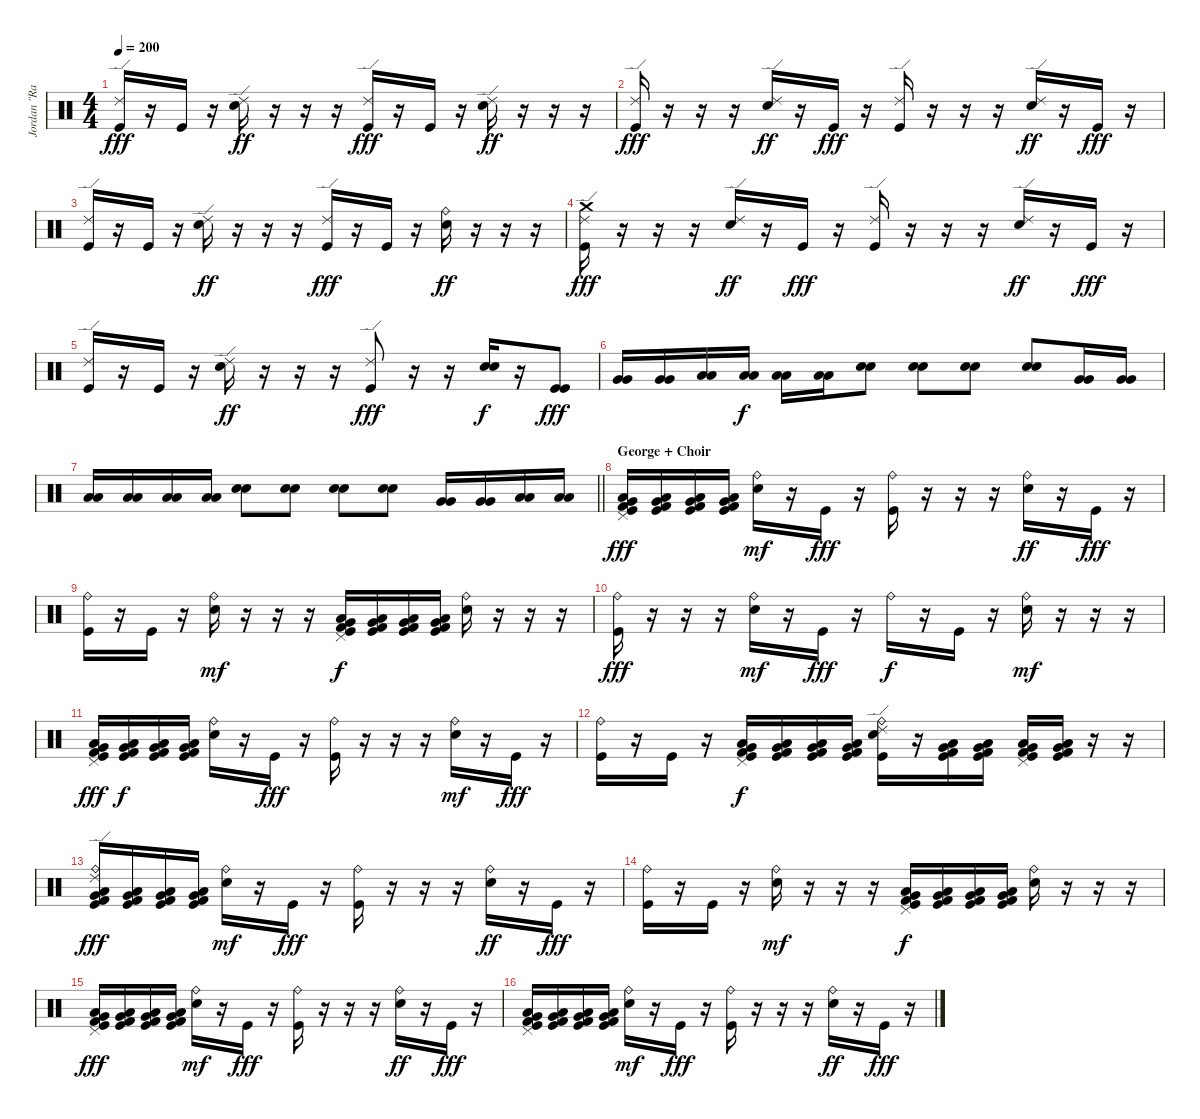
\track ("Jordan \"Ratbeard\" Hastings" "Jordan \"Ra") {instrument percussion}
\staff {score}
\articulation defaults
\ts (4 4)
\tempo 200
\clef neutral
\ks c
("Ride (edge) 2" "Kick (hit)").16{dy fff} r.16 "Kick (hit)".16 r.16 ("Ride (edge) 2" "Electric Snare (hit)").16{dy ff} r.16 r.16 r.16 ("Ride (edge) 2" "Kick (hit)").16{dy fff} r.16 "Kick (hit)".16 r.16 ("Ride (edge) 2" "Electric Snare (hit)").16{dy ff} r.16 r.16 r.16 |
("Ride (edge) 2" "Kick (hit)").16{dy fff} r.16 r.16 r.16 ("Ride (edge) 2" "Electric Snare (hit)").16{dy ff} r.16 "Kick (hit)".16{dy fff} r.16 ("Ride (edge) 2" "Kick (hit)").16 r.16 r.16 r.16 ("Ride (edge) 2" "Electric Snare (hit)").16{dy ff} r.16 "Kick (hit)".16{dy fff} r.16 |
("Ride (edge) 2" "Kick (hit)").16 r.16 "Kick (hit)".16 r.16 ("Ride (edge) 2" "Electric Snare (hit)").16{dy ff} r.16 r.16 r.16 ("Ride (edge) 2" "Kick (hit)").16{dy fff} r.16 "Kick (hit)".16 r.16 ("Ride (bell)" "Electric Snare (hit)").16{dy ff} r.16 r.16 r.16 |
("Ride (edge) 2" "Crash medium (hit)" "Kick (hit)").16{dy fff} r.16 r.16 r.16 ("Ride (edge) 2" "Electric Snare (hit)").16{dy ff} r.16 "Kick (hit)".16{dy fff} r.16 ("Ride (edge) 2" "Kick (hit)").16 r.16 r.16 r.16 ("Ride (edge) 2" "Electric Snare (hit)").16{dy ff} r.16 "Kick (hit)".16{dy fff} r.16 |
("Ride (edge) 2" "Kick (hit)").16 r.16 "Kick (hit)".16 r.16 ("Ride (edge) 2" "Electric Snare (hit)").16{dy ff} r.16 r.16 r.16 ("Ride (edge) 2" "Kick (hit)").8{dy fff} r.16 r.16 ("Electric Snare (hit)" "Electric Snare (hit)").16{dy f} r.16 ("Kick (hit)" "Kick (hit)").8{dy fff} |
("Very Low Tom (hit)" "Very Low Tom (hit)").16 ("Very Low Tom (hit)" "Very Low Tom (hit)").16 ("Low Tom (hit)" "Low Tom (hit)").16 ("Low Tom (hit)" "Low Tom (hit)").16{dy f} ("Low Floor Tom (hit)" "Low Floor Tom (hit)").16 ("Low Floor Tom (hit)" "Low Floor Tom (hit)").16 ("Electric Snare (hit)" "Electric Snare (hit)").8 ("Electric Snare (hit)" "Electric Snare (hit)").8 ("Electric Snare (hit)" "Electric Snare (hit)").8 ("Electric Snare (hit)" "Electric Snare (hit)").8 ("Very Low Tom (hit)" "Very Low Tom (hit)").16 ("Very Low Tom (hit)" "Very Low Tom (hit)").16 |
\barLineRight lightlight
("Low Tom (hit)" "Low Tom (hit)").16 ("Low Tom (hit)" "Low Tom (hit)").16 ("Low Floor Tom (hit)" "Low Floor Tom (hit)").16 ("Low Floor Tom (hit)" "Low Floor Tom (hit)").16 ("Electric Snare (hit)" "Electric Snare (hit)").8 ("Electric Snare (hit)" "Electric Snare (hit)").8 ("Electric Snare (hit)" "Electric Snare (hit)").8 ("Electric Snare (hit)" "Electric Snare (hit)").8 ("Very Low Tom (hit)" "Very Low Tom (hit)").16 ("Very Low Tom (hit)" "Very Low Tom (hit)").16 ("Low Tom (hit)" "Low Tom (hit)").16 ("Low Tom (hit)" "Low Tom (hit)").16 |
\section ("" "George + Choir")
("Pedal Hi-Hat (hit)" "Kick (hit) 2" "Low Tom (hit)" "Very Low Tom (hit)" "Kick (hit)").16{dy fff} ("Kick (hit) 2" "Low Tom (hit)" "Very Low Tom (hit)" "Kick (hit)").16 ("Kick (hit) 2" "Low Tom (hit)" "Very Low Tom (hit)" "Kick (hit)").16 ("Kick (hit) 2" "Low Tom (hit)" "Very Low Tom (hit)" "Kick (hit)").16 ("Ride (bell)" "Electric Snare (hit)").16{dy mf} r.16 "Kick (hit)".16{dy fff} r.16 ("Ride (bell)" "Kick (hit)").16 r.16 r.16 r.16 ("Ride (bell)" "Electric Snare (hit)").16{dy ff} r.16 "Kick (hit)".16{dy fff} r.16 |
("Ride (bell)" "Kick (hit)").16 r.16 "Kick (hit)".16 r.16 ("Ride (bell)" "Electric Snare (hit)").16{dy mf} r.16 r.16 r.16 ("Pedal Hi-Hat (hit)" "Kick (hit) 2" "Low Tom (hit)" "Very Low Tom (hit)" "Kick (hit)").16{dy f} ("Kick (hit) 2" "Low Tom (hit)" "Very Low Tom (hit)" "Kick (hit)").16 ("Kick (hit) 2" "Low Tom (hit)" "Very Low Tom (hit)" "Kick (hit)").16 ("Kick (hit) 2" "Low Tom (hit)" "Very Low Tom (hit)" "Kick (hit)").16 ("Ride (bell)" "Electric Snare (hit)").16 r.16 r.16 r.16 |
("Ride (bell)" "Kick (hit)").16{dy fff} r.16 r.16 r.16 ("Ride (bell)" "Electric Snare (hit)").16{dy mf} r.16 "Kick (hit)".16{dy fff} r.16 "Ride (bell)".16{dy f} r.16 "Kick (hit)".16 r.16 ("Ride (bell)" "Electric Snare (hit)").16{dy mf} r.16 r.16 r.16 |
("Pedal Hi-Hat (hit)" "Kick (hit) 2" "Low Tom (hit)" "Very Low Tom (hit)" "Kick (hit)").16{dy fff} ("Kick (hit) 2" "Low Tom (hit)" "Very Low Tom (hit)" "Kick (hit)").16{dy f} ("Kick (hit) 2" "Low Tom (hit)" "Very Low Tom (hit)" "Kick (hit)").16 ("Kick (hit) 2" "Low Tom (hit)" "Very Low Tom (hit)" "Kick (hit)").16 ("Ride (bell)" "Electric Snare (hit)").16 r.16 "Kick (hit)".16{dy fff} r.16 ("Ride (bell)" "Kick (hit)").16 r.16 r.16 r.16 ("Ride (bell)" "Electric Snare (hit)").16{dy mf} r.16 "Kick (hit)".16{dy fff} r.16 |
("Ride (bell)" "Kick (hit)").16 r.16 "Kick (hit)".16 r.16 ("Pedal Hi-Hat (hit)" "Kick (hit) 2" "Low Tom (hit)" "Very Low Tom (hit)" "Kick (hit)").16{dy f} ("Kick (hit) 2" "Low Tom (hit)" "Very Low Tom (hit)" "Kick (hit)").16 ("Kick (hit) 2" "Low Tom (hit)" "Very Low Tom (hit)" "Kick (hit)").16 ("Kick (hit) 2" "Low Tom (hit)" "Very Low Tom (hit)" "Kick (hit)").16 ("Ride (edge) 2" "Ride (bell)" "Electric Snare (hit)" "Kick (hit)").16 r.16 ("Kick (hit) 2" "Low Tom (hit)" "Very Low Tom (hit)" "Kick (hit)").16 ("Kick (hit) 2" "Low Tom (hit)" "Very Low Tom (hit)" "Kick (hit)").16 ("Pedal Hi-Hat (hit)" "Kick (hit) 2" "Low Tom (hit)" "Very Low Tom (hit)" "Kick (hit)").16 ("Kick (hit) 2" "Low Tom (hit)" "Very Low Tom (hit)" "Kick (hit)").16 r.16 r.16 |
("Ride (edge) 2" "Ride (bell)" "Kick (hit) 2" "Low Tom (hit)" "Very Low Tom (hit)" "Kick (hit)").16{dy fff} ("Kick (hit) 2" "Low Tom (hit)" "Very Low Tom (hit)" "Kick (hit)").16 ("Kick (hit) 2" "Low Tom (hit)" "Very Low Tom (hit)" "Kick (hit)").16 ("Kick (hit) 2" "Low Tom (hit)" "Very Low Tom (hit)" "Kick (hit)").16 ("Ride (bell)" "Electric Snare (hit)").16{dy mf} r.16 "Kick (hit)".16{dy fff} r.16 ("Ride (bell)" "Kick (hit)").16 r.16 r.16 r.16 ("Ride (bell)" "Electric Snare (hit)").16{dy ff} r.16 "Kick (hit)".16{dy fff} r.16 |
("Ride (bell)" "Kick (hit)").16 r.16 "Kick (hit)".16 r.16 ("Ride (bell)" "Electric Snare (hit)").16{dy mf} r.16 r.16 r.16 ("Pedal Hi-Hat (hit)" "Kick (hit) 2" "Low Tom (hit)" "Very Low Tom (hit)" "Kick (hit)").16{dy f} ("Kick (hit) 2" "Low Tom (hit)" "Very Low Tom (hit)" "Kick (hit)").16 ("Kick (hit) 2" "Low Tom (hit)" "Very Low Tom (hit)" "Kick (hit)").16 ("Kick (hit) 2" "Low Tom (hit)" "Very Low Tom (hit)" "Kick (hit)").16 ("Ride (bell)" "Electric Snare (hit)").16 r.16 r.16 r.16 |
("Pedal Hi-Hat (hit)" "Kick (hit) 2" "Low Tom (hit)" "Very Low Tom (hit)" "Kick (hit)").16{dy fff} ("Kick (hit) 2" "Low Tom (hit)" "Very Low Tom (hit)" "Kick (hit)").16 ("Kick (hit) 2" "Low Tom (hit)" "Very Low Tom (hit)" "Kick (hit)").16 ("Kick (hit) 2" "Low Tom (hit)" "Very Low Tom (hit)" "Kick (hit)").16 ("Ride (bell)" "Electric Snare (hit)").16{dy mf} r.16 "Kick (hit)".16{dy fff} r.16 ("Ride (bell)" "Kick (hit)").16 r.16 r.16 r.16 ("Ride (bell)" "Electric Snare (hit)").16{dy ff} r.16 "Kick (hit)".16{dy fff} r.16 |
("Pedal Hi-Hat (hit)" "Low Tom (hit)" "Kick (hit) 2" "Very Low Tom (hit)" "Kick (hit)").16 ("Low Tom (hit)" "Kick (hit) 2" "Very Low Tom (hit)" "Kick (hit)").16 ("Low Tom (hit)" "Kick (hit) 2" "Very Low Tom (hit)" "Kick (hit)").16 ("Low Tom (hit)" "Kick (hit) 2" "Very Low Tom (hit)" "Kick (hit)").16 ("Ride (bell)" "Electric Snare (hit)").16{dy mf} r.16 "Kick (hit)".16{dy fff} r.16 ("Ride (bell)" "Kick (hit)").16 r.16 r.16 r.16 ("Ride (bell)" "Electric Snare (hit)").16{dy ff} r.16 "Kick (hit)".16{dy fff} r.16
